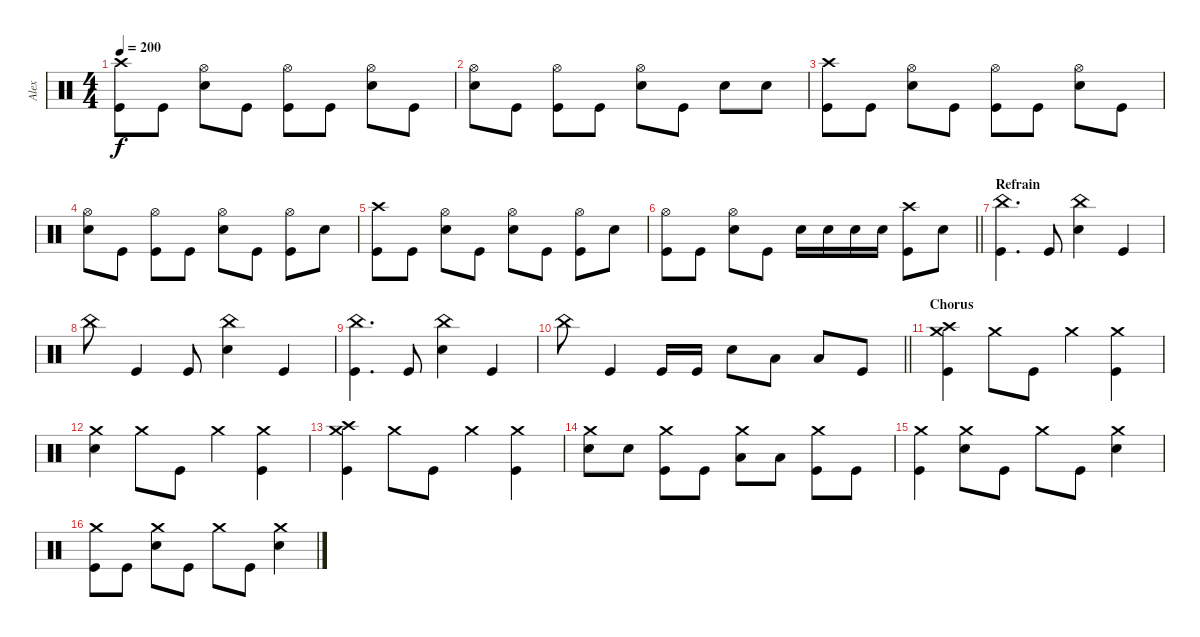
\track ("Alex" "Alex") {instrument percussion}
\staff {score}
\articulation defaults
\ts (4 4)
\tempo 200
\clef neutral
\ks c
("Crash high (hit)" "Kick (hit)").8{dy f} "Kick (hit)".8 ("Hi-Hat (open)" "Snare (hit) 2").8 "Kick (hit)".8 ("Hi-Hat (open)" "Kick (hit)").8 "Kick (hit)".8 ("Hi-Hat (open)" "Snare (hit) 2").8 "Kick (hit)".8 |
("Hi-Hat (open)" "Snare (hit) 2").8 "Kick (hit)".8 ("Hi-Hat (open)" "Kick (hit)").8 "Kick (hit)".8 ("Hi-Hat (open)" "Snare (hit) 2").8 "Kick (hit)".8 "Snare (hit) 2".8 "Snare (hit) 2".8 |
("Crash high (hit)" "Kick (hit)").8 "Kick (hit)".8 ("Hi-Hat (open)" "Snare (hit) 2").8 "Kick (hit)".8 ("Hi-Hat (open)" "Kick (hit)").8 "Kick (hit)".8 ("Hi-Hat (open)" "Snare (hit) 2").8 "Kick (hit)".8 |
("Hi-Hat (open)" "Snare (hit) 2").8 "Kick (hit)".8 ("Hi-Hat (open)" "Kick (hit)").8 "Kick (hit)".8 ("Hi-Hat (open)" "Snare (hit) 2").8 "Kick (hit)".8 ("Hi-Hat (open)" "Kick (hit)").8 "Snare (hit) 2".8 |
("Crash high (hit)" "Kick (hit)").8 "Kick (hit)".8 ("Hi-Hat (open)" "Snare (hit) 2").8 "Kick (hit)".8 ("Hi-Hat (open)" "Snare (hit) 2").8 "Kick (hit)".8 ("Hi-Hat (open)" "Kick (hit)").8 "Snare (hit) 2".8 |
\barLineRight lightlight
("Hi-Hat (open)" "Kick (hit)").8 "Kick (hit)".8 ("Hi-Hat (open)" "Snare (hit) 2").8 "Kick (hit)".8 "Snare (hit) 2".16 "Snare (hit) 2".16 "Snare (hit) 2".16 "Snare (hit) 2".16 ("Crash high (hit)" "Kick (hit)").8 "Snare (hit) 2".8 |
\section ("" "Refrain")
("China (hit)" "Kick (hit)").4{d} "Kick (hit)".8 ("China (hit)" "Snare (hit) 2").4 "Kick (hit)".4 |
"China (hit)".8 "Kick (hit)".4 "Kick (hit)".8 ("China (hit)" "Snare (hit) 2").4 "Kick (hit)".4 |
("China (hit)" "Kick (hit)").4{d} "Kick (hit)".8 ("China (hit)" "Snare (hit) 2").4 "Kick (hit)".4 |
\barLineRight lightlight "China (hit)".8 "Kick (hit)".4 "Kick (hit)".16 "Kick (hit)".16 "Snare (hit) 2".8 "Low Tom (hit)".8 "Low Tom (hit)".8 "Kick (hit)".8
|
\section ("" "Chorus")
("Crash medium (hit)" "Crash high (hit)" "Kick (hit)").4 "Crash medium (hit)".8 "Kick (hit)".8 "Crash medium (hit)".4 ("Crash medium (hit)" "Kick (hit)").4 |
("Crash medium (hit)" "Snare (hit) 2").4 "Crash medium (hit)".8 "Kick (hit)".8 "Crash medium (hit)".4 ("Crash medium (hit)" "Kick (hit)").4 |
("Crash medium (hit)" "Crash high (hit)" "Kick (hit)").4 "Crash medium (hit)".8 "Kick (hit)".8 "Crash medium (hit)".4 ("Crash medium (hit)" "Kick (hit)").4 |
("Crash medium (hit)" "Snare (hit) 2").8 "Snare (hit) 2".8 ("Crash medium (hit)" "Kick (hit)").8 "Kick (hit)".8 ("Crash medium (hit)" "Low Tom (hit)").8 "Low Tom (hit)".8 ("Crash medium (hit)" "Kick (hit)").8 "Kick (hit)".8 |
("Crash medium (hit)" "Kick (hit)").4 ("Crash medium (hit)" "Snare (hit) 2").8 "Kick (hit)".8 "Crash medium (hit)".8 "Kick (hit)".8 ("Crash medium (hit)" "Snare (hit) 2").4 |
("Crash medium (hit)" "Kick (hit)").8 "Kick (hit)".8 ("Crash medium (hit)" "Snare (hit) 2").8 "Kick (hit)".8 "Crash medium (hit)".8 "Kick (hit)".8 ("Crash medium (hit)" "Snare (hit) 2").4
